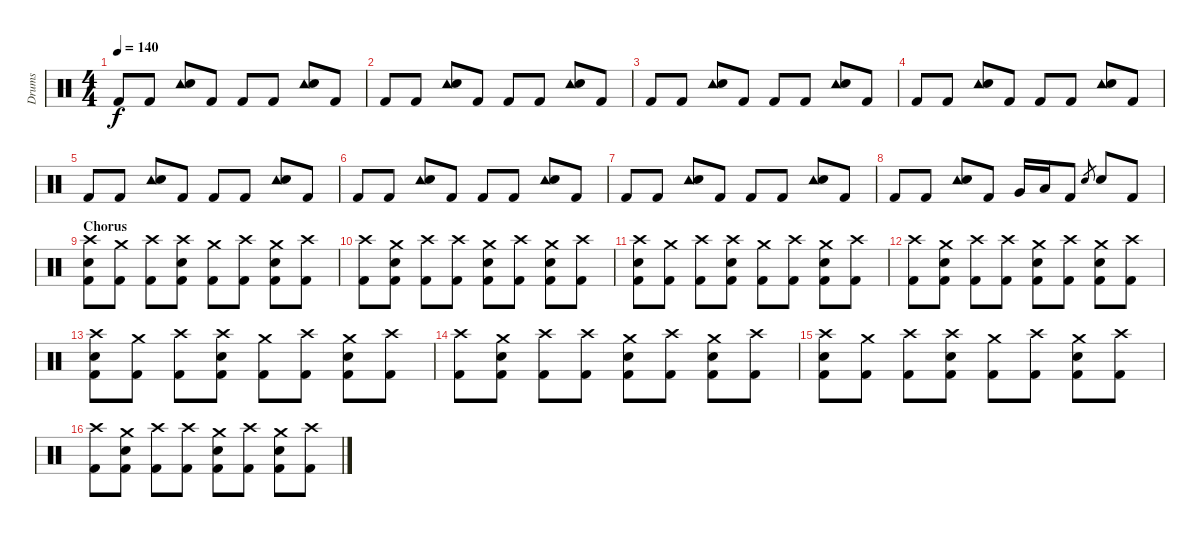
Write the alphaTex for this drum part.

\track ("Drums" "Drums") {instrument percussion}
\staff {score}
\articulation defaults
\ts (4 4)
\tempo 140
\clef neutral
\ks c "Kick (hit) 2".8{dy f} "Kick (hit) 2".8
("Tambourine (hit)" "Electric Snare (hit)").8 "Kick (hit) 2".8 "Kick (hit) 2".8 "Kick (hit) 2".8 ("Tambourine (hit)" "Electric Snare (hit)").8 "Kick (hit) 2".8 |
"Kick (hit) 2".8 "Kick (hit) 2".8 ("Tambourine (hit)" "Electric Snare (hit)").8 "Kick (hit) 2".8 "Kick (hit) 2".8 "Kick (hit) 2".8 ("Tambourine (hit)" "Electric Snare (hit)").8 "Kick (hit) 2".8 |
"Kick (hit) 2".8 "Kick (hit) 2".8 ("Tambourine (hit)" "Electric Snare (hit)").8 "Kick (hit) 2".8 "Kick (hit) 2".8 "Kick (hit) 2".8 ("Tambourine (hit)" "Electric Snare (hit)").8 "Kick (hit) 2".8 |
"Kick (hit) 2".8 "Kick (hit) 2".8 ("Tambourine (hit)" "Electric Snare (hit)").8 "Kick (hit) 2".8 "Kick (hit) 2".8 "Kick (hit) 2".8 ("Tambourine (hit)" "Electric Snare (hit)").8 "Kick (hit) 2".8 |
"Kick (hit) 2".8 "Kick (hit) 2".8 ("Tambourine (hit)" "Electric Snare (hit)").8 "Kick (hit) 2".8 "Kick (hit) 2".8 "Kick (hit) 2".8 ("Tambourine (hit)" "Electric Snare (hit)").8 "Kick (hit) 2".8 |
"Kick (hit) 2".8 "Kick (hit) 2".8 ("Tambourine (hit)" "Electric Snare (hit)").8 "Kick (hit) 2".8 "Kick (hit) 2".8 "Kick (hit) 2".8 ("Tambourine (hit)" "Electric Snare (hit)").8 "Kick (hit) 2".8 |
"Kick (hit) 2".8 "Kick (hit) 2".8 ("Tambourine (hit)" "Electric Snare (hit)").8 "Kick (hit) 2".8 "Kick (hit) 2".8 "Kick (hit) 2".8 ("Tambourine (hit)" "Electric Snare (hit)").8 "Kick (hit) 2".8 |
"Kick (hit) 2".8 "Kick (hit) 2".8 ("Tambourine (hit)" "Electric Snare (hit)").8 "Kick (hit) 2".8 "Very Low Tom (hit)".16 "Low Tom (hit)".16 "Kick (hit) 2".8 "Electric Snare (hit)".8{gr} "Electric Snare (hit)".8 "Kick (hit) 2".8 |
\section ("" "Chorus")
("Crash high (hit)" "Electric Snare (hit)" "Kick (hit) 2").8 ("Crash medium (hit)" "Kick (hit) 2").8 ("Crash high (hit)" "Kick (hit) 2").8 ("Crash high (hit)" "Electric Snare (hit)" "Kick (hit) 2").8 ("Crash medium (hit)" "Kick (hit) 2").8 ("Crash high (hit)" "Kick (hit) 2").8 ("Crash medium (hit)" "Electric Snare (hit)" "Kick (hit) 2").8 ("Crash high (hit)" "Kick (hit) 2").8 |
("Crash high (hit)" "Kick (hit) 2").8 ("Crash medium (hit)" "Electric Snare (hit)" "Kick (hit) 2").8 ("Crash high (hit)" "Kick (hit) 2").8 ("Crash high (hit)" "Kick (hit) 2").8 ("Crash medium (hit)" "Electric Snare (hit)" "Kick (hit) 2").8 ("Crash high (hit)" "Kick (hit) 2").8 ("Crash medium (hit)" "Electric Snare (hit)" "Kick (hit) 2").8 ("Crash high (hit)" "Kick (hit) 2").8 |
("Crash high (hit)" "Electric Snare (hit)" "Kick (hit) 2").8 ("Crash medium (hit)" "Kick (hit) 2").8 ("Crash high (hit)" "Kick (hit) 2").8 ("Crash high (hit)" "Electric Snare (hit)" "Kick (hit) 2").8 ("Crash medium (hit)" "Kick (hit) 2").8 ("Crash high (hit)" "Kick (hit) 2").8 ("Crash medium (hit)" "Electric Snare (hit)" "Kick (hit) 2").8 ("Crash high (hit)" "Kick (hit) 2").8 |
("Crash high (hit)" "Kick (hit) 2").8 ("Crash medium (hit)" "Electric Snare (hit)" "Kick (hit) 2").8 ("Crash high (hit)" "Kick (hit) 2").8 ("Crash high (hit)" "Kick (hit) 2").8 ("Crash medium (hit)" "Electric Snare (hit)" "Kick (hit) 2").8 ("Crash high (hit)" "Kick (hit) 2").8 ("Crash medium (hit)" "Electric Snare (hit)" "Kick (hit) 2").8 ("Crash high (hit)" "Kick (hit) 2").8 |
("Crash high (hit)" "Electric Snare (hit)" "Kick (hit) 2").8 ("Crash medium (hit)" "Kick (hit) 2").8 ("Crash high (hit)" "Kick (hit) 2").8 ("Crash high (hit)" "Electric Snare (hit)" "Kick (hit) 2").8 ("Crash medium (hit)" "Kick (hit) 2").8 ("Crash high (hit)" "Kick (hit) 2").8 ("Crash medium (hit)" "Electric Snare (hit)" "Kick (hit) 2").8 ("Crash high (hit)" "Kick (hit) 2").8 |
("Crash high (hit)" "Kick (hit) 2").8 ("Crash medium (hit)" "Electric Snare (hit)" "Kick (hit) 2").8 ("Crash high (hit)" "Kick (hit) 2").8 ("Crash high (hit)" "Kick (hit) 2").8 ("Crash medium (hit)" "Electric Snare (hit)" "Kick (hit) 2").8 ("Crash high (hit)" "Kick (hit) 2").8 ("Crash medium (hit)" "Electric Snare (hit)" "Kick (hit) 2").8 ("Crash high (hit)" "Kick (hit) 2").8 |
("Crash high (hit)" "Electric Snare (hit)" "Kick (hit) 2").8 ("Crash medium (hit)" "Kick (hit) 2").8 ("Crash high (hit)" "Kick (hit) 2").8 ("Crash high (hit)" "Electric Snare (hit)" "Kick (hit) 2").8 ("Crash medium (hit)" "Kick (hit) 2").8 ("Crash high (hit)" "Kick (hit) 2").8 ("Crash medium (hit)" "Electric Snare (hit)" "Kick (hit) 2").8 ("Crash high (hit)" "Kick (hit) 2").8 |
("Crash high (hit)" "Kick (hit) 2").8 ("Crash medium (hit)" "Electric Snare (hit)" "Kick (hit) 2").8 ("Crash high (hit)" "Kick (hit) 2").8 ("Crash high (hit)" "Kick (hit) 2").8 ("Crash medium (hit)" "Electric Snare (hit)" "Kick (hit) 2").8 ("Crash high (hit)" "Kick (hit) 2").8 ("Crash medium (hit)" "Electric Snare (hit)" "Kick (hit) 2").8 ("Crash high (hit)" "Kick (hit) 2").8
